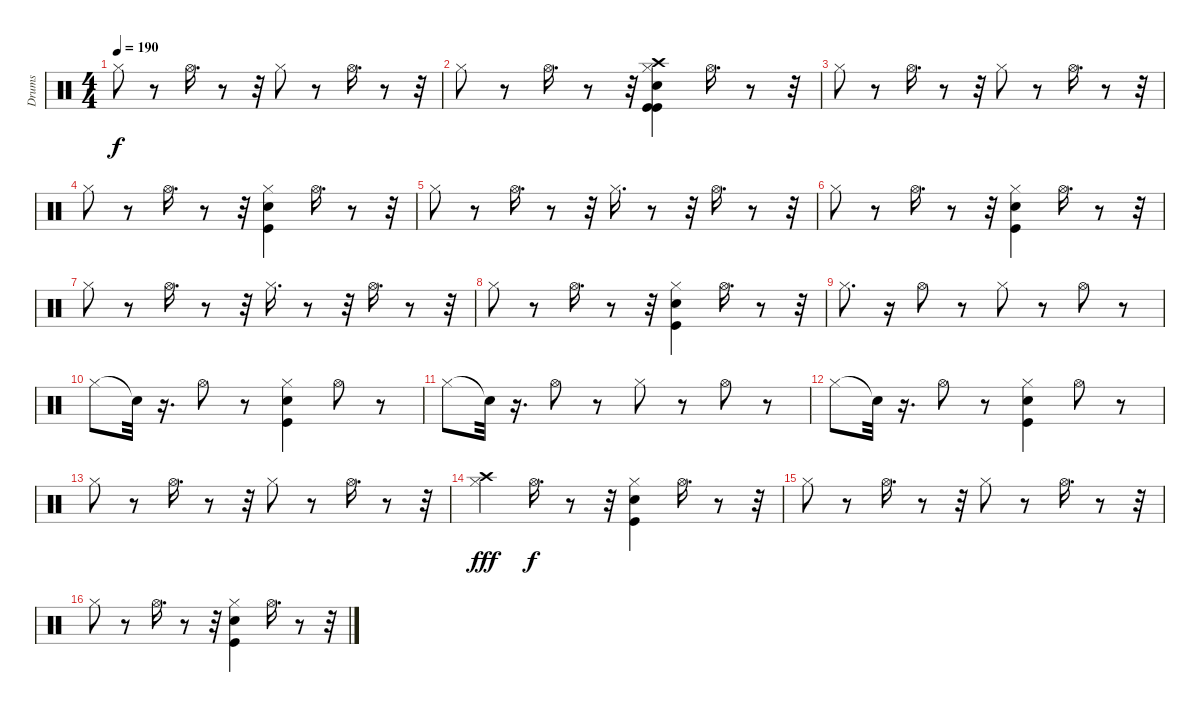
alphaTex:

\track ("Drums" "Drums") {instrument percussion}
\staff {score}
\articulation defaults
\ts (4 4)
\tempo 190
\clef neutral
\ks c "Hi-Hat (closed)".8{dy f}
r.8 "Hi-Hat (open)".16{d} r.8 r.32 "Hi-Hat (closed)".8 r.8 "Hi-Hat (open)".16{d} r.8 r.32 |
"Hi-Hat (closed)".8 r.8 "Hi-Hat (open)".16{d} r.8 r.32 ("Kick (hit)" "Kick (hit)" "Crash high (hit)" "Snare (hit) 2" "Hi-Hat (closed)").4 "Hi-Hat (open)".16{d} r.8 r.32 |
"Hi-Hat (closed)".8 r.8 "Hi-Hat (open)".16{d} r.8 r.32 "Hi-Hat (closed)".8 r.8 "Hi-Hat (open)".16{d} r.8 r.32 |
"Hi-Hat (closed)".8 r.8 "Hi-Hat (open)".16{d} r.8 r.32 ("Kick (hit)" "Snare (hit) 2" "Hi-Hat (closed)").4 "Hi-Hat (open)".16{d} r.8 r.32 |
"Hi-Hat (closed)".8 r.8 "Hi-Hat (open)".16{d} r.8 r.32 "Hi-Hat (closed)".16{d} r.8 r.32 "Hi-Hat (open)".16{d} r.8 r.32 |
"Hi-Hat (closed)".8 r.8 "Hi-Hat (open)".16{d} r.8 r.32 ("Kick (hit)" "Snare (hit) 2" "Hi-Hat (closed)").4 "Hi-Hat (open)".16{d} r.8 r.32 |
"Hi-Hat (closed)".8 r.8 "Hi-Hat (open)".16{d} r.8 r.32 "Hi-Hat (closed)".16{d} r.8 r.32 "Hi-Hat (open)".16{d} r.8 r.32 |
"Hi-Hat (closed)".8 r.8 "Hi-Hat (open)".16{d} r.8 r.32 ("Kick (hit)" "Snare (hit) 2" "Hi-Hat (closed)").4 "Hi-Hat (open)".16{d} r.8 r.32 |
"Hi-Hat (closed)".8{d} r.16 "Hi-Hat (open)".8 r.8 "Hi-Hat (closed)".8 r.8 "Hi-Hat (open)".8 r.8 |
"Hi-Hat (closed)".8 "Snare (hit)"{t}.32 r.16{d} "Hi-Hat (open)".8 r.8 ("Kick (hit)" "Snare (hit) 2" "Hi-Hat (closed)").4 "Hi-Hat (open)".8 r.8 |
"Hi-Hat (closed)".8 "Snare (hit)"{t}.32 r.16{d} "Hi-Hat (open)".8 r.8 "Hi-Hat (closed)".8 r.8 "Hi-Hat (open)".8 r.8 |
"Hi-Hat (closed)".8 "Snare (hit)"{t}.32 r.16{d} "Hi-Hat (open)".8 r.8 ("Kick (hit)" "Snare (hit) 2" "Hi-Hat (closed)").4 "Hi-Hat (open)".8 r.8 |
"Hi-Hat (closed)".8 r.8 "Hi-Hat (open)".16{d} r.8 r.32 "Hi-Hat (closed)".8 r.8 "Hi-Hat (open)".16{d} r.8 r.32 |
("Crash high (hit)" "Hi-Hat (closed)").4{dy fff} "Hi-Hat (open)".16{d dy f} r.8 r.32 ("Kick (hit)" "Snare (hit) 2" "Hi-Hat (closed)").4 "Hi-Hat (open)".16{d} r.8 r.32 |
"Hi-Hat (closed)".8 r.8 "Hi-Hat (open)".16{d} r.8 r.32 "Hi-Hat (closed)".8 r.8 "Hi-Hat (open)".16{d} r.8 r.32 |
"Hi-Hat (closed)".8 r.8 "Hi-Hat (open)".16{d} r.8 r.32 ("Kick (hit)" "Snare (hit) 2" "Hi-Hat (closed)").4 "Hi-Hat (open)".16{d} r.8 r.32
